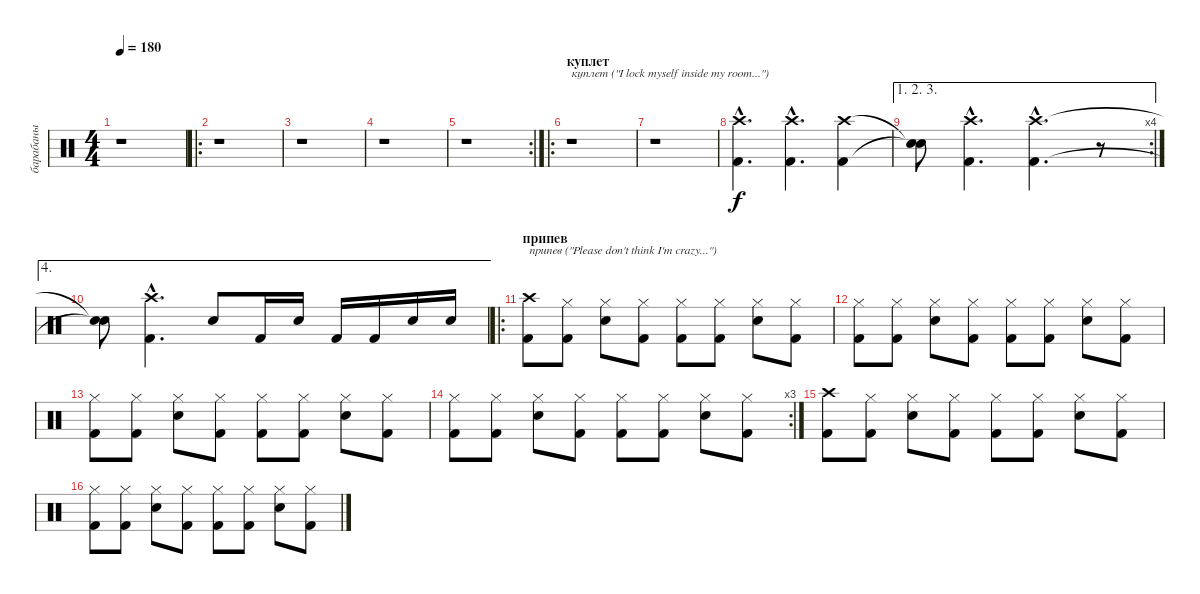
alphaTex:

\track ("барабаны" "барабаны") {instrument percussion}
\staff {score}
\articulation defaults
\ts (4 4)
\tempo 180
\clef neutral
\ks c
r.1{dy f} |
\ro
r.1 |
r.1 |
r.1 |
\rc 2
r.1 |
\ro
\section ("" "куплет ")
r.1{txt "куплет (\"I lock myself inside my room...\")"} |
r.1 |
("Kick (hit) 2"{hac} "Crash high (hit)"{hac}).4{d} ("Kick (hit) 2"{hac} "Crash high (hit)"{hac}).4{d} ("Kick (hit) 2" "Crash high (hit)").4 |
\ae (1 2 3)
\rc 4
("Snare (hit)"{t} "Snare (hit)"{t}).8 ("Kick (hit) 2"{hac} "Crash high (hit)"{hac}).4{d} ("Kick (hit) 2"{hac} "Crash high (hit)"{hac}).4{d} r.8 |
\ae 4
("Snare (hit)"{t} "Snare (hit)"{t}).8 ("Kick (hit) 2"{hac} "Crash high (hit)"{hac}).4{d} "Snare (hit) 2".8 "Kick (hit) 2".16 "Snare (hit) 2".16 "Kick (hit) 2".16 "Kick (hit) 2".16 "Snare (hit) 2".16 "Snare (hit) 2".16 |
\ro
\section ("" "припев")
("Kick (hit) 2" "Crash high (hit)").8{txt "припев (\"Please don't think I'm crazy...\")"} ("Kick (hit) 2" "Hi-Hat (closed)").8 ("Snare (hit) 2" "Hi-Hat (closed)").8 ("Kick (hit) 2" "Hi-Hat (closed)").8 ("Kick (hit) 2" "Hi-Hat (closed)").8 ("Kick (hit) 2" "Hi-Hat (closed)").8 ("Snare (hit) 2" "Hi-Hat (closed)").8 ("Kick (hit) 2" "Hi-Hat (closed)").8 |
("Kick (hit) 2" "Hi-Hat (closed)").8 ("Kick (hit) 2" "Hi-Hat (closed)").8 ("Snare (hit) 2" "Hi-Hat (closed)").8 ("Kick (hit) 2" "Hi-Hat (closed)").8 ("Kick (hit) 2" "Hi-Hat (closed)").8 ("Kick (hit) 2" "Hi-Hat (closed)").8 ("Snare (hit) 2" "Hi-Hat (closed)").8 ("Kick (hit) 2" "Hi-Hat (closed)").8 |
("Kick (hit) 2" "Hi-Hat (closed)").8 ("Kick (hit) 2" "Hi-Hat (closed)").8 ("Snare (hit) 2" "Hi-Hat (closed)").8 ("Kick (hit) 2" "Hi-Hat (closed)").8 ("Kick (hit) 2" "Hi-Hat (closed)").8 ("Kick (hit) 2" "Hi-Hat (closed)").8 ("Snare (hit) 2" "Hi-Hat (closed)").8 ("Kick (hit) 2" "Hi-Hat (closed)").8 |
\rc 3
("Kick (hit) 2" "Hi-Hat (closed)").8 ("Kick (hit) 2" "Hi-Hat (closed)").8 ("Snare (hit) 2" "Hi-Hat (closed)").8 ("Kick (hit) 2" "Hi-Hat (closed)").8 ("Kick (hit) 2" "Hi-Hat (closed)").8 ("Kick (hit) 2" "Hi-Hat (closed)").8 ("Snare (hit) 2" "Hi-Hat (closed)").8 ("Kick (hit) 2" "Hi-Hat (closed)").8 |
("Kick (hit) 2" "Crash high (hit)").8 ("Kick (hit) 2" "Hi-Hat (closed)").8 ("Snare (hit) 2" "Hi-Hat (closed)").8 ("Kick (hit) 2" "Hi-Hat (closed)").8 ("Kick (hit) 2" "Hi-Hat (closed)").8 ("Kick (hit) 2" "Hi-Hat (closed)").8 ("Snare (hit) 2" "Hi-Hat (closed)").8 ("Kick (hit) 2" "Hi-Hat (closed)").8 |
("Kick (hit) 2" "Hi-Hat (closed)").8 ("Kick (hit) 2" "Hi-Hat (closed)").8 ("Snare (hit) 2" "Hi-Hat (closed)").8 ("Kick (hit) 2" "Hi-Hat (closed)").8 ("Kick (hit) 2" "Hi-Hat (closed)").8 ("Kick (hit) 2" "Hi-Hat (closed)").8 ("Snare (hit) 2" "Hi-Hat (closed)").8 ("Kick (hit) 2" "Hi-Hat (closed)").8
